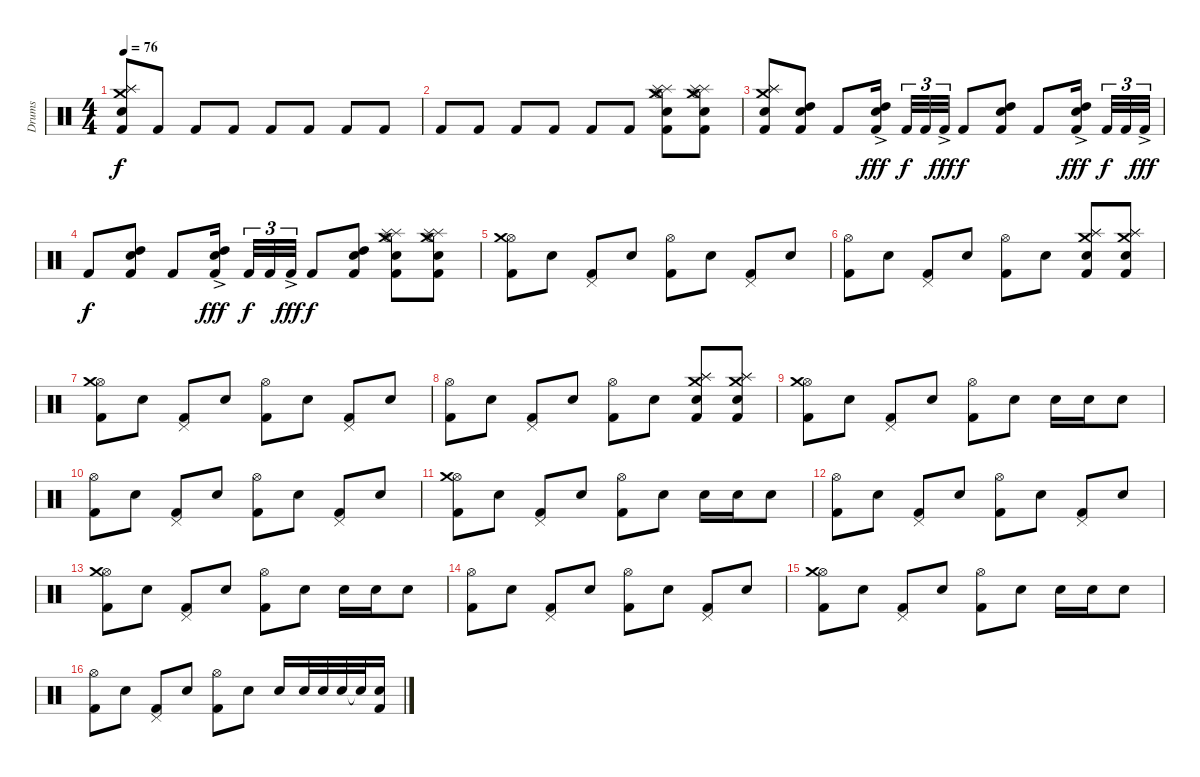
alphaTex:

\track ("Drums" "Drums") {instrument percussion}
\staff {score}
\articulation defaults
\ts (4 4)
\tempo 76
\clef neutral
\ks c
("Kick (hit) 2" "Crash medium (hit)" "Splash (hit)" "Splash (hit)" "Snare (hit) 2").8{dy f volume 13} "Kick (hit) 2".8{volume 15} "Kick (hit) 2".8 "Kick (hit) 2".8 "Kick (hit) 2".8 "Kick (hit) 2".8 "Kick (hit) 2".8 "Kick (hit) 2".8 |
"Kick (hit) 2".8 "Kick (hit) 2".8 "Kick (hit) 2".8 "Kick (hit) 2".8 "Kick (hit) 2".8 "Kick (hit) 2".8 ("Hi-Hat (open)" "Kick (hit) 2" "Crash medium (hit)" "Splash (hit)" "Splash (hit)" "Snare (hit) 2").8{volume 13} ("Hi-Hat (open)" "Kick (hit) 2" "Splash (hit)" "Crash medium (hit)" "Splash (hit)" "Snare (hit) 2").8 |
("Kick (hit) 2" "Crash medium (hit)" "Splash (hit)" "Splash (hit)" "Snare (hit) 2").8{volume 13} ("Kick (hit) 2" "High Tom (hit)" "Snare (hit) 2").8 "Kick (hit) 2".8 ("Kick (hit) 2"{ac} "High Tom (hit)" "Snare (hit) 2").16{dy fff} "Kick (hit) 2".32{tu (3 2) dy f} "Kick (hit) 2".32{tu (3 2)} "Kick (hit) 2"{ac}.32{tu (3 2) dy fff} "Kick (hit) 2".8{dy f} ("Kick (hit) 2" "High Tom (hit)" "Snare (hit) 2").8 "Kick (hit) 2".8 ("Kick (hit) 2"{ac} "High Tom (hit)" "Snare (hit) 2").16{dy fff} "Kick (hit) 2".32{tu (3 2) dy f} "Kick (hit) 2".32{tu (3 2)} "Kick (hit) 2"{ac}.32{tu (3 2) dy fff} |
"Kick (hit) 2".8{dy f} ("Kick (hit) 2" "High Tom (hit)" "Snare (hit) 2").8 "Kick (hit) 2".8 ("Kick (hit) 2"{ac} "High Tom (hit)" "Snare (hit) 2").16{dy fff} "Kick (hit) 2".32{tu (3 2) dy f} "Kick (hit) 2".32{tu (3 2)} "Kick (hit) 2"{ac}.32{tu (3 2) dy fff} "Kick (hit) 2".8{dy f} ("Kick (hit) 2" "High Tom (hit)" "Snare (hit) 2").8 ("Hi-Hat (open)" "Kick (hit) 2" "Crash medium (hit)" "Splash (hit)" "Splash (hit)" "Snare (hit) 2").8 ("Hi-Hat (open)" "Kick (hit) 2" "Splash (hit)" "Crash medium (hit)" "Splash (hit)" "Snare (hit) 2").8 |
("Kick (hit) 2" "Hi-Hat (open)" "Crash medium (hit)").8 "Snare (hit) 2".8 ("Kick (hit) 2" "Pedal Hi-Hat (hit)").8 "Snare (hit) 2".8 ("Kick (hit) 2" "Hi-Hat (open)").8 "Snare (hit) 2".8 ("Kick (hit) 2" "Pedal Hi-Hat (hit)").8 "Snare (hit) 2".8 |
("Kick (hit) 2" "Hi-Hat (open)").8 "Snare (hit) 2".8 ("Kick (hit) 2" "Pedal Hi-Hat (hit)").8 "Snare (hit) 2".8 ("Kick (hit) 2" "Hi-Hat (open)").8 "Snare (hit) 2".8 ("Kick (hit) 2" "Snare (hit) 2" "Splash (hit)" "Splash (hit)" "Crash medium (hit)").8 ("Kick (hit) 2" "Snare (hit) 2" "Splash (hit)" "Splash (hit)" "Crash medium (hit)").8 |
("Kick (hit) 2" "Hi-Hat (open)" "Crash medium (hit)").8 "Snare (hit) 2".8 ("Kick (hit) 2" "Pedal Hi-Hat (hit)").8 "Snare (hit) 2".8 ("Kick (hit) 2" "Hi-Hat (open)").8 "Snare (hit) 2".8 ("Kick (hit) 2" "Pedal Hi-Hat (hit)").8 "Snare (hit) 2".8 |
("Kick (hit) 2" "Hi-Hat (open)").8 "Snare (hit) 2".8 ("Kick (hit) 2" "Pedal Hi-Hat (hit)").8 "Snare (hit) 2".8 ("Kick (hit) 2" "Hi-Hat (open)").8 "Snare (hit) 2".8 ("Kick (hit) 2" "Snare (hit) 2" "Splash (hit)" "Splash (hit)" "Crash medium (hit)").8 ("Kick (hit) 2" "Snare (hit) 2" "Splash (hit)" "Splash (hit)" "Crash medium (hit)").8 |
("Kick (hit) 2" "Hi-Hat (open)" "Crash medium (hit)").8 "Snare (hit) 2".8 ("Kick (hit) 2" "Pedal Hi-Hat (hit)").8 "Snare (hit) 2".8 ("Kick (hit) 2" "Hi-Hat (open)").8 "Snare (hit) 2".8 "Snare (hit) 2".16 "Snare (hit) 2".16 "Snare (hit) 2".8 |
("Kick (hit) 2" "Hi-Hat (open)").8 "Snare (hit) 2".8 ("Kick (hit) 2" "Pedal Hi-Hat (hit)").8 "Snare (hit) 2".8 ("Kick (hit) 2" "Hi-Hat (open)").8 "Snare (hit) 2".8 ("Kick (hit) 2" "Pedal Hi-Hat (hit)").8 "Snare (hit) 2".8 |
("Kick (hit) 2" "Hi-Hat (open)" "Crash medium (hit)").8 "Snare (hit) 2".8 ("Kick (hit) 2" "Pedal Hi-Hat (hit)").8 "Snare (hit) 2".8 ("Kick (hit) 2" "Hi-Hat (open)").8 "Snare (hit) 2".8 "Snare (hit) 2".16 "Snare (hit) 2".16 "Snare (hit) 2".8 |
("Kick (hit) 2" "Hi-Hat (open)").8 "Snare (hit) 2".8 ("Kick (hit) 2" "Pedal Hi-Hat (hit)").8 "Snare (hit) 2".8 ("Kick (hit) 2" "Hi-Hat (open)").8 "Snare (hit) 2".8 ("Kick (hit) 2" "Pedal Hi-Hat (hit)").8 "Snare (hit) 2".8 |
("Kick (hit) 2" "Hi-Hat (open)" "Crash medium (hit)").8 "Snare (hit) 2".8 ("Kick (hit) 2" "Pedal Hi-Hat (hit)").8 "Snare (hit) 2".8 ("Kick (hit) 2" "Hi-Hat (open)").8 "Snare (hit) 2".8 "Snare (hit) 2".16 "Snare (hit) 2".16 "Snare (hit) 2".8 |
("Kick (hit) 2" "Hi-Hat (open)").8 "Snare (hit) 2".8 ("Kick (hit) 2" "Pedal Hi-Hat (hit)").8 "Snare (hit) 2".8 ("Kick (hit) 2" "Hi-Hat (open)").8 "Snare (hit) 2".8 ("Kick (hit) 2" "Pedal Hi-Hat (hit)").8 "Snare (hit) 2".8 |
("Kick (hit) 2" "Hi-Hat (open)" "Crash medium (hit)").8 "Snare (hit) 2".8 ("Kick (hit) 2" "Pedal Hi-Hat (hit)").8 "Snare (hit) 2".8 ("Kick (hit) 2" "Hi-Hat (open)").8 "Snare (hit) 2".8 "Snare (hit) 2".16 "Snare (hit) 2".16 "Snare (hit) 2".8 |
("Kick (hit) 2" "Hi-Hat (open)").8 "Snare (hit) 2".8 ("Kick (hit) 2" "Pedal Hi-Hat (hit)").8 "Snare (hit) 2".8 ("Kick (hit) 2" "Hi-Hat (open)").8 "Snare (hit) 2".8 "Snare (hit) 2".16 "Snare (hit) 2".32 "Snare (hit) 2".32 "Snare (hit) 2".32 "Snare (hit)"{t}.32 ("Kick (hit) 2" "Snare (hit) 2").16
